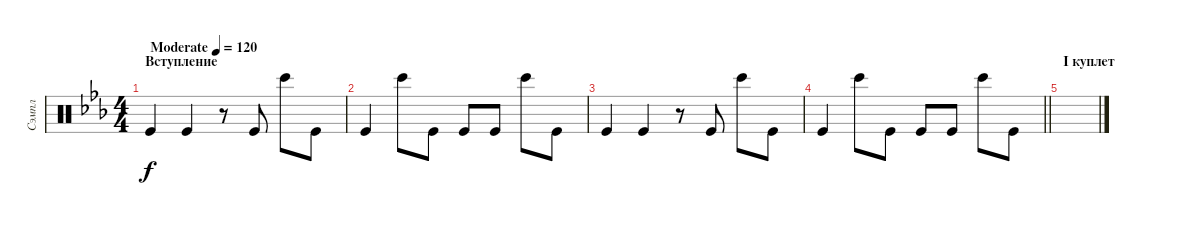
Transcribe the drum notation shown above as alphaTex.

\track ("Сэмпл" "Сэмпл") {instrument percussion}
\staff {score}
\articulation defaults
\ts (4 4)
\section ("" "Вступление")
\tempo (120 "Moderate")
\clef neutral
\ks cminor "Kick (hit)".4{dy f} "Kick (hit)".4
r.8 "Kick (hit)".8 "Bongo High (hit)".8 "Kick (hit)".8 |
"Kick (hit)".4 "Bongo High (hit)".8 "Kick (hit)".8 "Kick (hit)".8 "Kick (hit)".8 "Bongo High (hit)".8 "Kick (hit)".8 |
"Kick (hit)".4 "Kick (hit)".4 r.8 "Kick (hit)".8 "Bongo High (hit)".8 "Kick (hit)".8 |
\barLineRight lightlight "Kick (hit)".4 "Bongo High (hit)".8 "Kick (hit)".8 "Kick (hit)".8 "Kick (hit)".8 "Bongo High (hit)".8 "Kick (hit)".8
|
\section ("" "I куплет")
